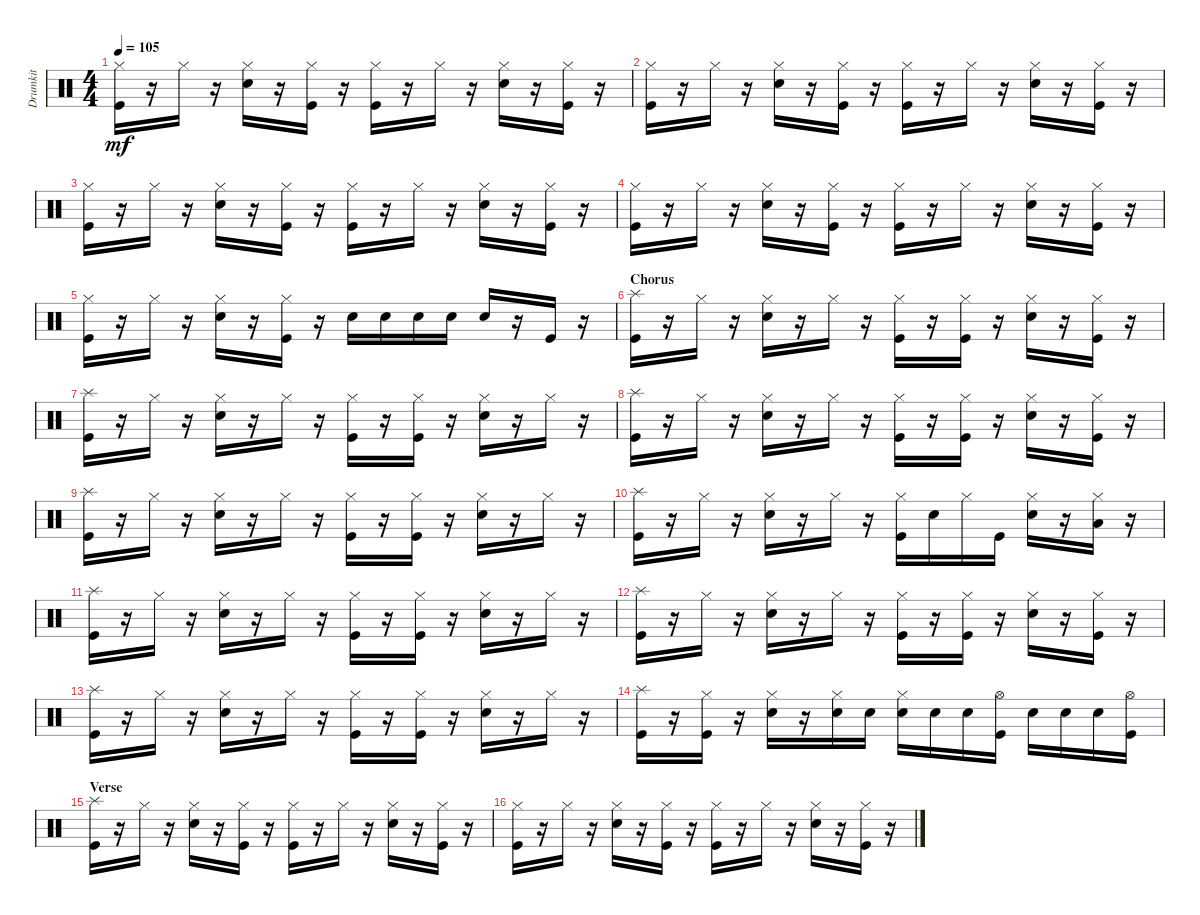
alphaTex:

\track ("Drumkit" "Drumkit") {instrument percussion}
\staff {score}
\articulation defaults
\ts (4 4)
\tempo 105
\clef neutral
\ks c
("Kick (hit)" "Hi-Hat (closed)").16{dy mf} r.16 "Hi-Hat (closed)".16 r.16 ("Hi-Hat (closed)" "Snare (hit) 2").16 r.16 ("Hi-Hat (closed)" "Kick (hit)").16 r.16 ("Hi-Hat (closed)" "Kick (hit)").16 r.16 "Hi-Hat (closed)".16 r.16 ("Hi-Hat (closed)" "Snare (hit) 2").16 r.16 ("Hi-Hat (closed)" "Kick (hit)").16 r.16 |
("Kick (hit)" "Hi-Hat (closed)").16 r.16 "Hi-Hat (closed)".16 r.16 ("Hi-Hat (closed)" "Snare (hit) 2").16 r.16 ("Hi-Hat (closed)" "Kick (hit)").16 r.16 ("Hi-Hat (closed)" "Kick (hit)").16 r.16 "Hi-Hat (closed)".16 r.16 ("Hi-Hat (closed)" "Snare (hit) 2").16 r.16 ("Hi-Hat (closed)" "Kick (hit)").16 r.16 |
("Kick (hit)" "Hi-Hat (closed)").16 r.16 "Hi-Hat (closed)".16 r.16 ("Hi-Hat (closed)" "Snare (hit) 2").16 r.16 ("Hi-Hat (closed)" "Kick (hit)").16 r.16 ("Hi-Hat (closed)" "Kick (hit)").16 r.16 "Hi-Hat (closed)".16 r.16 ("Hi-Hat (closed)" "Snare (hit) 2").16 r.16 ("Hi-Hat (closed)" "Kick (hit)").16 r.16 |
("Kick (hit)" "Hi-Hat (closed)").16 r.16 "Hi-Hat (closed)".16 r.16 ("Hi-Hat (closed)" "Snare (hit) 2").16 r.16 ("Hi-Hat (closed)" "Kick (hit)").16 r.16 ("Hi-Hat (closed)" "Kick (hit)").16 r.16 "Hi-Hat (closed)".16 r.16 ("Hi-Hat (closed)" "Snare (hit) 2").16 r.16 ("Hi-Hat (closed)" "Kick (hit)").16 r.16 |
("Kick (hit)" "Hi-Hat (closed)").16 r.16 "Hi-Hat (closed)".16 r.16 ("Hi-Hat (closed)" "Snare (hit) 2").16 r.16 ("Hi-Hat (closed)" "Kick (hit)").16 r.16 "Snare (hit) 2".16 "Snare (hit) 2".16 "Snare (hit) 2".16 "Snare (hit) 2".16 "Snare (hit) 2".16 r.16 "Kick (hit)".16 r.16 |
\section ("" "Chorus")
("Kick (hit)" "Splash (hit)").16 r.16 "Hi-Hat (closed)".16 r.16 ("Hi-Hat (closed)" "Snare (hit) 2").16 r.16 "Hi-Hat (closed)".16 r.16 ("Hi-Hat (closed)" "Kick (hit)").16 r.16 ("Hi-Hat (closed)" "Kick (hit)").16 r.16 ("Hi-Hat (closed)" "Snare (hit) 2").16 r.16 ("Hi-Hat (closed)" "Kick (hit)").16 r.16 |
("Kick (hit)" "Splash (hit)").16 r.16 "Hi-Hat (closed)".16 r.16 ("Hi-Hat (closed)" "Snare (hit) 2").16 r.16 "Hi-Hat (closed)".16 r.16 ("Hi-Hat (closed)" "Kick (hit)").16 r.16 ("Hi-Hat (closed)" "Kick (hit)").16 r.16 ("Hi-Hat (closed)" "Snare (hit) 2").16 r.16 "Hi-Hat (closed)".16 r.16 |
("Kick (hit)" "Splash (hit)").16 r.16 "Hi-Hat (closed)".16 r.16 ("Hi-Hat (closed)" "Snare (hit) 2").16 r.16 "Hi-Hat (closed)".16 r.16 ("Hi-Hat (closed)" "Kick (hit)").16 r.16 ("Hi-Hat (closed)" "Kick (hit)").16 r.16 ("Hi-Hat (closed)" "Snare (hit) 2").16 r.16 ("Hi-Hat (closed)" "Kick (hit)").16 r.16 |
("Kick (hit)" "Splash (hit)").16 r.16 "Hi-Hat (closed)".16 r.16 ("Hi-Hat (closed)" "Snare (hit) 2").16 r.16 "Hi-Hat (closed)".16 r.16 ("Hi-Hat (closed)" "Kick (hit)").16 r.16 ("Hi-Hat (closed)" "Kick (hit)").16 r.16 ("Hi-Hat (closed)" "Snare (hit) 2").16 r.16 "Hi-Hat (closed)".16 r.16 |
("Kick (hit)" "Splash (hit)").16 r.16 "Hi-Hat (closed)".16 r.16 ("Hi-Hat (closed)" "Snare (hit) 2").16 r.16 "Hi-Hat (closed)".16 r.16 ("Hi-Hat (closed)" "Kick (hit)").16 "Snare (hit) 2".16 "Hi-Hat (closed)".16 "Kick (hit)".16 ("Hi-Hat (closed)" "Snare (hit) 2").16 r.16 ("Low Tom (hit)" "Hi-Hat (closed)").16 r.16 |
("Kick (hit)" "Splash (hit)").16 r.16 "Hi-Hat (closed)".16 r.16 ("Hi-Hat (closed)" "Snare (hit) 2").16 r.16 "Hi-Hat (closed)".16 r.16 ("Hi-Hat (closed)" "Kick (hit)").16 r.16 ("Hi-Hat (closed)" "Kick (hit)").16 r.16 ("Hi-Hat (closed)" "Snare (hit) 2").16 r.16 "Hi-Hat (closed)".16 r.16 |
("Kick (hit)" "Splash (hit)").16 r.16 "Hi-Hat (closed)".16 r.16 ("Hi-Hat (closed)" "Snare (hit) 2").16 r.16 "Hi-Hat (closed)".16 r.16 ("Hi-Hat (closed)" "Kick (hit)").16 r.16 ("Hi-Hat (closed)" "Kick (hit)").16 r.16 ("Hi-Hat (closed)" "Snare (hit) 2").16 r.16 ("Hi-Hat (closed)" "Kick (hit)").16 r.16 |
("Kick (hit)" "Splash (hit)").16 r.16 "Hi-Hat (closed)".16 r.16 ("Hi-Hat (closed)" "Snare (hit) 2").16 r.16 "Hi-Hat (closed)".16 r.16 ("Hi-Hat (closed)" "Kick (hit)").16 r.16 ("Hi-Hat (closed)" "Kick (hit)").16 r.16 ("Hi-Hat (closed)" "Snare (hit) 2").16 r.16 "Hi-Hat (closed)".16 r.16 |
("Kick (hit)" "Splash (hit)").16 r.16 ("Hi-Hat (closed)" "Kick (hit)").16 r.16 ("Hi-Hat (closed)" "Snare (hit) 2").16 r.16 ("Hi-Hat (closed)" "Snare (hit) 2").16 "Snare (hit) 2".16 ("Hi-Hat (closed)" "Snare (hit) 2").16 "Snare (hit) 2".16 "Snare (hit) 2".16 ("Kick (hit)" "Hi-Hat (open)").16 "Snare (hit) 2".16 "Snare (hit) 2".16 "Snare (hit) 2".16 ("Kick (hit)" "Hi-Hat (open)").16 |
\section ("" "Verse")
("Kick (hit)" "Splash (hit)").16 r.16 "Hi-Hat (closed)".16 r.16 ("Hi-Hat (closed)" "Snare (hit) 2").16 r.16 ("Hi-Hat (closed)" "Kick (hit)").16 r.16 ("Hi-Hat (closed)" "Kick (hit)").16 r.16 "Hi-Hat (closed)".16 r.16 ("Hi-Hat (closed)" "Snare (hit) 2").16 r.16 ("Hi-Hat (closed)" "Kick (hit)").16 r.16 |
("Kick (hit)" "Hi-Hat (closed)").16 r.16 "Hi-Hat (closed)".16 r.16 ("Hi-Hat (closed)" "Snare (hit) 2").16 r.16 ("Hi-Hat (closed)" "Kick (hit)").16 r.16 ("Hi-Hat (closed)" "Kick (hit)").16 r.16 "Hi-Hat (closed)".16 r.16 ("Hi-Hat (closed)" "Snare (hit) 2").16 r.16 ("Hi-Hat (closed)" "Kick (hit)").16 r.16
